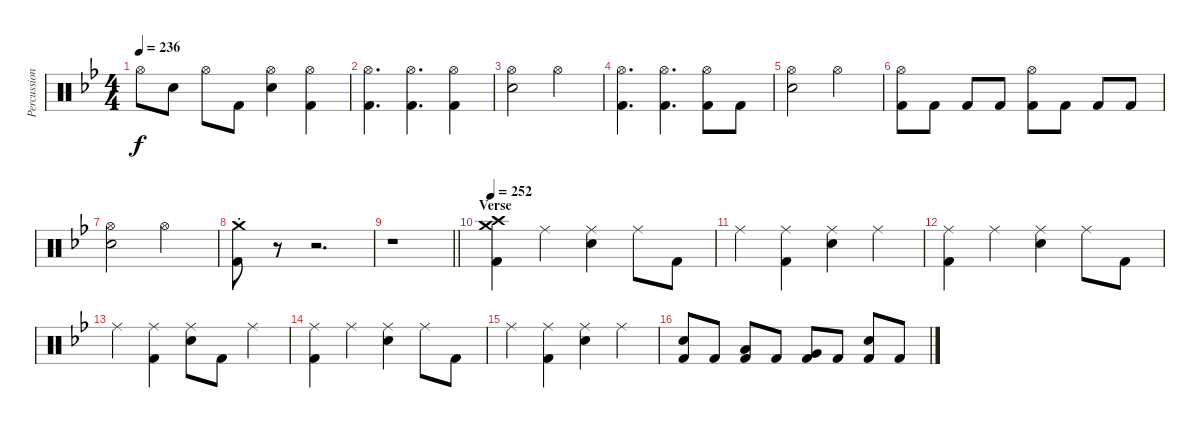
\track ("Percussion" "Percussion") {instrument percussion}
\staff {score}
\articulation defaults
\ts (4 4)
\tempo 236
\clef neutral
\ks bb "Hi-Hat (open)".8{dy f} "Electric Snare (hit)".8 "Hi-Hat (open)".8 "Kick (hit) 2".8
("Hi-Hat (open)" "Electric Snare (hit)").4 ("Hi-Hat (open)" "Kick (hit) 2").4 |
("Hi-Hat (open)" "Kick (hit) 2").4{d} ("Hi-Hat (open)" "Kick (hit) 2").4{d} ("Hi-Hat (open)" "Kick (hit) 2").4 |
("Hi-Hat (open)" "Electric Snare (hit)").2 "Hi-Hat (open)".2 |
("Hi-Hat (open)" "Kick (hit) 2").4{d} ("Hi-Hat (open)" "Kick (hit) 2").4{d} ("Hi-Hat (open)" "Kick (hit) 2").8 "Kick (hit) 2".8 |
("Hi-Hat (open)" "Electric Snare (hit)").2 "Hi-Hat (open)".2 |
("Hi-Hat (open)" "Kick (hit) 2").8 "Kick (hit) 2".8 "Kick (hit) 2".8 "Kick (hit) 2".8 ("Hi-Hat (open)" "Kick (hit) 2").8 "Kick (hit) 2".8 "Kick (hit) 2".8 "Kick (hit) 2".8 |
("Hi-Hat (open)" "Electric Snare (hit)").2 "Hi-Hat (open)".2 |
("Crash medium (hit)"{st} "Kick (hit) 2").8 r.8{volume 0} r.2{d} |
\barLineRight lightlight
r.1 |
\section ("" "Verse")
\tempo 252
("Crash medium (hit)" "Crash high (hit)" "Kick (hit) 2").4{volume 14} "Ride (middle)".4 ("Ride (middle)" "Electric Snare (hit)").4 "Ride (middle)".8 "Kick (hit) 2".8 |
"Ride (middle)".4 ("Ride (middle)" "Kick (hit) 2").4 ("Ride (middle)" "Electric Snare (hit)").4 "Ride (middle)".4 |
("Ride (middle)" "Kick (hit) 2").4 "Ride (middle)".4 ("Ride (middle)" "Electric Snare (hit)").4 "Ride (middle)".8 "Kick (hit) 2".8 |
"Ride (middle)".4 ("Ride (middle)" "Kick (hit) 2").4 ("Ride (middle)" "Electric Snare (hit)").8 "Kick (hit) 2".8 "Ride (middle)".4 |
("Ride (middle)" "Kick (hit) 2").4 "Ride (middle)".4 ("Ride (middle)" "Electric Snare (hit)").4 "Ride (middle)".8 "Kick (hit) 2".8 |
"Ride (middle)".4 ("Ride (middle)" "Kick (hit) 2").4 ("Ride (middle)" "Electric Snare (hit)").4 "Ride (middle)".4 |
("Electric Snare (hit)" "Kick (hit) 2").8 "Kick (hit) 2".8 ("Low Tom (hit)" "Kick (hit) 2").8 "Kick (hit) 2".8 ("Very Low Tom (hit)" "Kick (hit) 2").8 "Kick (hit) 2".8 ("Electric Snare (hit)" "Kick (hit) 2").8 "Kick (hit) 2".8
